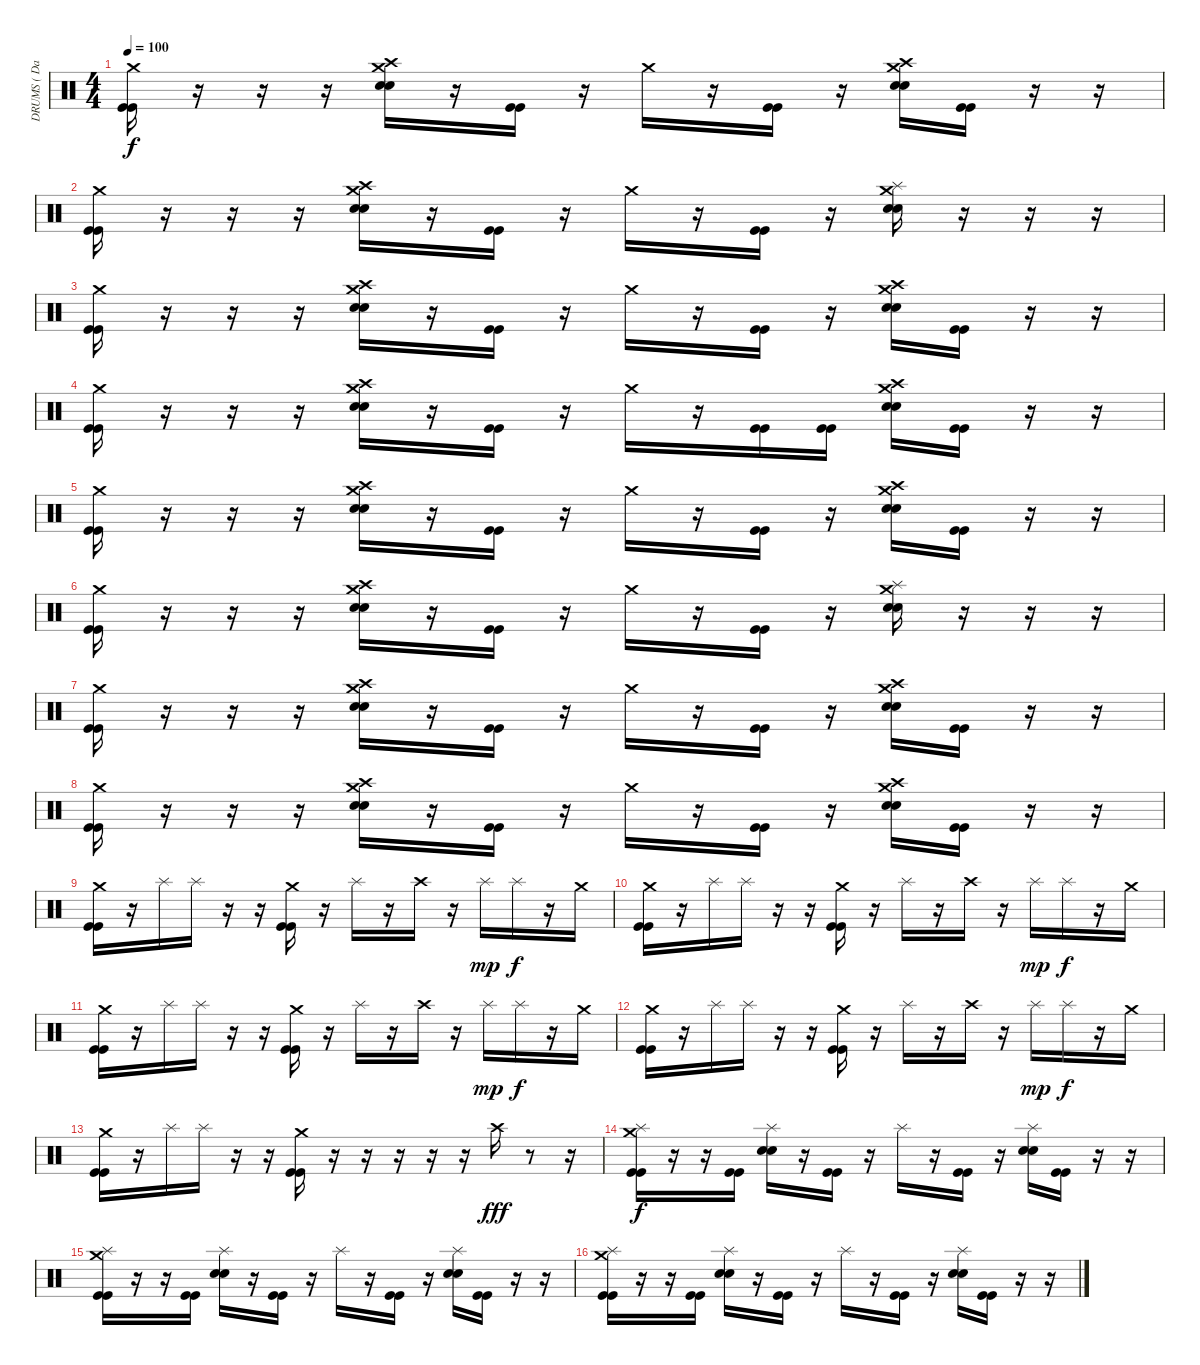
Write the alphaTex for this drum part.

\track ("DRUMS ( David ) - Wally Balljacker" "DRUMS ( Da") {instrument percussion}
\staff {score}
\articulation defaults
\ts (4 4)
\tempo 100
\clef neutral
\ks c
("Crash medium (hit)" "Kick (hit)" "Kick (hit)").16{dy f} r.16 r.16 r.16 ("Crash medium (hit)" "Crash high (hit)" "Electric Snare (hit)" "Electric Snare (hit)").16 r.16 ("Kick (hit)" "Kick (hit)").16 r.16 "Crash medium (hit)".16 r.16 ("Kick (hit)" "Kick (hit)").16 r.16 ("Crash medium (hit)" "Crash high (hit)" "Electric Snare (hit)" "Electric Snare (hit)").16 ("Kick (hit)" "Kick (hit)").16 r.16 r.16 |
("Crash medium (hit)" "Kick (hit)" "Kick (hit)").16 r.16 r.16 r.16 ("Crash medium (hit)" "Crash high (hit)" "Electric Snare (hit)" "Electric Snare (hit)").16 r.16 ("Kick (hit)" "Kick (hit)").16 r.16 "Crash medium (hit)".16 r.16 ("Kick (hit)" "Kick (hit)").16 r.16 ("Crash medium (hit)" "Splash (hit)" "Electric Snare (hit)" "Electric Snare (hit)").16 r.16 r.16 r.16 |
("Crash medium (hit)" "Kick (hit)" "Kick (hit)").16 r.16 r.16 r.16 ("Crash medium (hit)" "Crash high (hit)" "Electric Snare (hit)" "Electric Snare (hit)").16 r.16 ("Kick (hit)" "Kick (hit)").16 r.16 "Crash medium (hit)".16 r.16 ("Kick (hit)" "Kick (hit)").16 r.16 ("Crash medium (hit)" "Crash high (hit)" "Electric Snare (hit)" "Electric Snare (hit)").16 ("Kick (hit)" "Kick (hit)").16 r.16 r.16 |
("Crash medium (hit)" "Kick (hit)" "Kick (hit)").16 r.16 r.16 r.16 ("Crash medium (hit)" "Crash high (hit)" "Electric Snare (hit)" "Electric Snare (hit)").16 r.16 ("Kick (hit)" "Kick (hit)").16 r.16 "Crash medium (hit)".16 r.16 ("Kick (hit)" "Kick (hit)").16 ("Kick (hit)" "Kick (hit)").16 ("Crash medium (hit)" "Crash high (hit)" "Electric Snare (hit)" "Electric Snare (hit)").16 ("Kick (hit)" "Kick (hit)").16 r.16 r.16 |
("Crash medium (hit)" "Kick (hit)" "Kick (hit)").16 r.16 r.16 r.16 ("Crash medium (hit)" "Crash high (hit)" "Electric Snare (hit)" "Electric Snare (hit)").16 r.16 ("Kick (hit)" "Kick (hit)").16 r.16 "Crash medium (hit)".16 r.16 ("Kick (hit)" "Kick (hit)").16 r.16 ("Crash medium (hit)" "Crash high (hit)" "Electric Snare (hit)" "Electric Snare (hit)").16 ("Kick (hit)" "Kick (hit)").16 r.16 r.16 |
("Crash medium (hit)" "Kick (hit)" "Kick (hit)").16 r.16 r.16 r.16 ("Crash medium (hit)" "Crash high (hit)" "Electric Snare (hit)" "Electric Snare (hit)").16 r.16 ("Kick (hit)" "Kick (hit)").16 r.16 "Crash medium (hit)".16 r.16 ("Kick (hit)" "Kick (hit)").16 r.16 ("Crash medium (hit)" "Splash (hit)" "Electric Snare (hit)" "Electric Snare (hit)").16 r.16 r.16 r.16 |
("Crash medium (hit)" "Kick (hit)" "Kick (hit)").16 r.16 r.16 r.16 ("Crash medium (hit)" "Crash high (hit)" "Electric Snare (hit)" "Electric Snare (hit)").16 r.16 ("Kick (hit)" "Kick (hit)").16 r.16 "Crash medium (hit)".16 r.16 ("Kick (hit)" "Kick (hit)").16 r.16 ("Crash medium (hit)" "Crash high (hit)" "Electric Snare (hit)" "Electric Snare (hit)").16 ("Kick (hit)" "Kick (hit)").16 r.16 r.16 |
("Crash medium (hit)" "Kick (hit)" "Kick (hit)").16 r.16 r.16 r.16 ("Crash medium (hit)" "Crash high (hit)" "Electric Snare (hit)" "Electric Snare (hit)").16 r.16 ("Kick (hit)" "Kick (hit)").16 r.16 "Crash medium (hit)".16 r.16 ("Kick (hit)" "Kick (hit)").16 r.16 ("Crash medium (hit)" "Crash high (hit)" "Electric Snare (hit)" "Electric Snare (hit)").16 ("Kick (hit)" "Kick (hit)").16 r.16 r.16 |
("Crash medium (hit)" "Kick (hit)" "Kick (hit)").16 r.16 "Splash (hit)".16 "Splash (hit)".16 r.16 r.16 ("Crash medium (hit)" "Kick (hit)" "Kick (hit)").16 r.16 "Splash (hit)".16 r.16 "Crash high (hit)".16 r.16 "Splash (hit)".16{dy mp} "Splash (hit)".16{dy f} r.16 "Crash medium (hit)".16 |
("Crash medium (hit)" "Kick (hit)" "Kick (hit)").16 r.16 "Splash (hit)".16 "Splash (hit)".16 r.16 r.16 ("Crash medium (hit)" "Kick (hit)" "Kick (hit)").16 r.16 "Splash (hit)".16 r.16 "Crash high (hit)".16 r.16 "Splash (hit)".16{dy mp} "Splash (hit)".16{dy f} r.16 "Crash medium (hit)".16 |
("Crash medium (hit)" "Kick (hit)" "Kick (hit)").16 r.16 "Splash (hit)".16 "Splash (hit)".16 r.16 r.16 ("Crash medium (hit)" "Kick (hit)" "Kick (hit)").16 r.16 "Splash (hit)".16 r.16 "Crash high (hit)".16 r.16 "Splash (hit)".16{dy mp} "Splash (hit)".16{dy f} r.16 "Crash medium (hit)".16 |
("Crash medium (hit)" "Kick (hit)" "Kick (hit)").16 r.16 "Splash (hit)".16 "Splash (hit)".16 r.16 r.16 ("Crash medium (hit)" "Kick (hit)" "Kick (hit)").16 r.16 "Splash (hit)".16 r.16 "Crash high (hit)".16 r.16 "Splash (hit)".16{dy mp} "Splash (hit)".16{dy f} r.16 "Crash medium (hit)".16 |
("Crash medium (hit)" "Kick (hit)" "Kick (hit)").16 r.16 "Splash (hit)".16 "Splash (hit)".16 r.16 r.16 ("Crash medium (hit)" "Kick (hit)" "Kick (hit)").16 r.16 r.16 r.16 r.16 r.16 "Crash high (hit)".16{dy fff} r.8 r.16 |
("Splash (hit)" "Crash medium (hit)" "Kick (hit)" "Kick (hit)").16{dy f} r.16 r.16 ("Kick (hit)" "Kick (hit)").16 ("Splash (hit)" "Electric Snare (hit)" "Electric Snare (hit)").16 r.16 ("Kick (hit)" "Kick (hit)").16 r.16 "Splash (hit)".16 r.16 ("Kick (hit)" "Kick (hit)").16 r.16 ("Splash (hit)" "Electric Snare (hit)" "Electric Snare (hit)").16 ("Kick (hit)" "Kick (hit)").16 r.16 r.16 |
("Splash (hit)" "Crash medium (hit)" "Kick (hit)" "Kick (hit)").16 r.16 r.16 ("Kick (hit)" "Kick (hit)").16 ("Splash (hit)" "Electric Snare (hit)" "Electric Snare (hit)").16 r.16 ("Kick (hit)" "Kick (hit)").16 r.16 "Splash (hit)".16 r.16 ("Kick (hit)" "Kick (hit)").16 r.16 ("Splash (hit)" "Electric Snare (hit)" "Electric Snare (hit)").16 ("Kick (hit)" "Kick (hit)").16 r.16 r.16 |
("Splash (hit)" "Crash medium (hit)" "Kick (hit)" "Kick (hit)").16 r.16 r.16 ("Kick (hit)" "Kick (hit)").16 ("Splash (hit)" "Electric Snare (hit)" "Electric Snare (hit)").16 r.16 ("Kick (hit)" "Kick (hit)").16 r.16 "Splash (hit)".16 r.16 ("Kick (hit)" "Kick (hit)").16 r.16 ("Splash (hit)" "Electric Snare (hit)" "Electric Snare (hit)").16 ("Kick (hit)" "Kick (hit)").16 r.16 r.16
